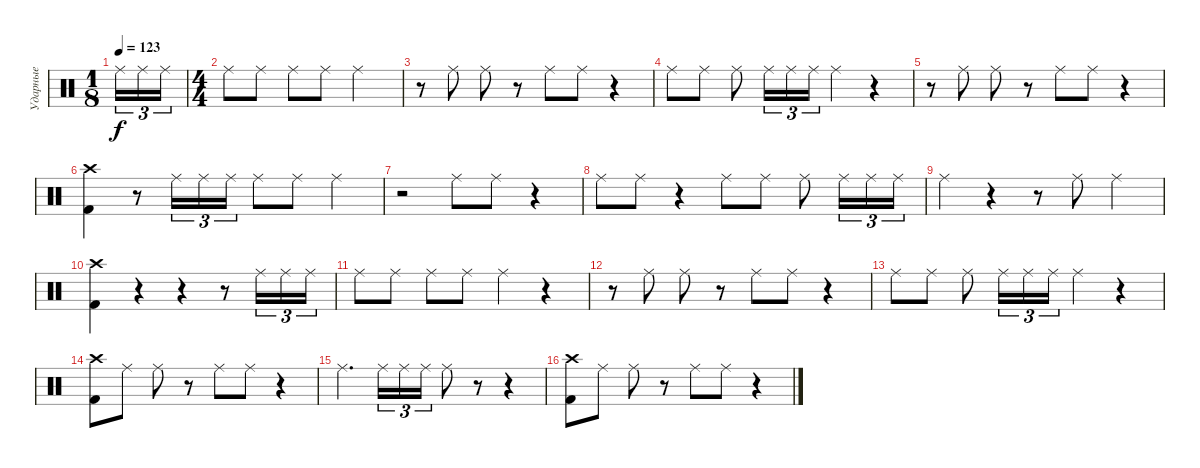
\track ("Ударные" "Ударные") {instrument percussion}
\staff {score}
\articulation defaults
\ts (1 8)
\tempo 123
\clef neutral
\ks c "Ride (middle)".16{tu (3 2) dy f} "Ride (middle)".16{tu (3 2)} "Ride (middle)".16{tu (3 2)}
|
\ts (4 4)
"Ride (middle)".8 "Ride (middle)".8 "Ride (middle)".8 "Ride (middle)".8 "Ride (middle)".2 |
r.8 "Ride (middle)".8 "Ride (middle)".8 r.8 "Ride (middle)".8 "Ride (middle)".8 r.4 |
"Ride (middle)".8 "Ride (middle)".8 "Ride (middle)".8 "Ride (middle)".16{tu (3 2)} "Ride (middle)".16{tu (3 2)} "Ride (middle)".16{tu (3 2)} "Ride (middle)".4 r.4 |
r.8 "Ride (middle)".8 "Ride (middle)".8 r.8 "Ride (middle)".8 "Ride (middle)".8 r.4 |
("Crash high (hit)" "Kick (hit) 2").4 r.8 "Ride (middle)".16{tu (3 2)} "Ride (middle)".16{tu (3 2)} "Ride (middle)".16{tu (3 2)} "Ride (middle)".8 "Ride (middle)".8 "Ride (middle)".4 |
r.2 "Ride (middle)".8 "Ride (middle)".8 r.4 |
"Ride (middle)".8 "Ride (middle)".8 r.4 "Ride (middle)".8 "Ride (middle)".8 "Ride (middle)".8 "Ride (middle)".16{tu (3 2)} "Ride (middle)".16{tu (3 2)} "Ride (middle)".16{tu (3 2)} |
"Ride (middle)".4 r.4 r.8 "Ride (middle)".8 "Ride (middle)".4 |
("Crash high (hit)" "Kick (hit) 2").4 r.4 r.4 r.8 "Ride (middle)".16{tu (3 2)} "Ride (middle)".16{tu (3 2)} "Ride (middle)".16{tu (3 2)} |
"Ride (middle)".8 "Ride (middle)".8 "Ride (middle)".8 "Ride (middle)".8 "Ride (middle)".4 r.4 |
r.8 "Ride (middle)".8 "Ride (middle)".8 r.8 "Ride (middle)".8 "Ride (middle)".8 r.4 |
"Ride (middle)".8 "Ride (middle)".8 "Ride (middle)".8 "Ride (middle)".16{tu (3 2)} "Ride (middle)".16{tu (3 2)} "Ride (middle)".16{tu (3 2)} "Ride (middle)".4 r.4 |
("Crash high (hit)" "Kick (hit) 2").8 "Ride (middle)".8 "Ride (middle)".8 r.8 "Ride (middle)".8 "Ride (middle)".8 r.4 |
"Ride (middle)".4{d} "Ride (middle)".16{tu (3 2)} "Ride (middle)".16{tu (3 2)} "Ride (middle)".16{tu (3 2)} "Ride (middle)".8 r.8 r.4 |
("Crash high (hit)" "Kick (hit) 2").8 "Ride (middle)".8 "Ride (middle)".8 r.8 "Ride (middle)".8 "Ride (middle)".8 r.4
